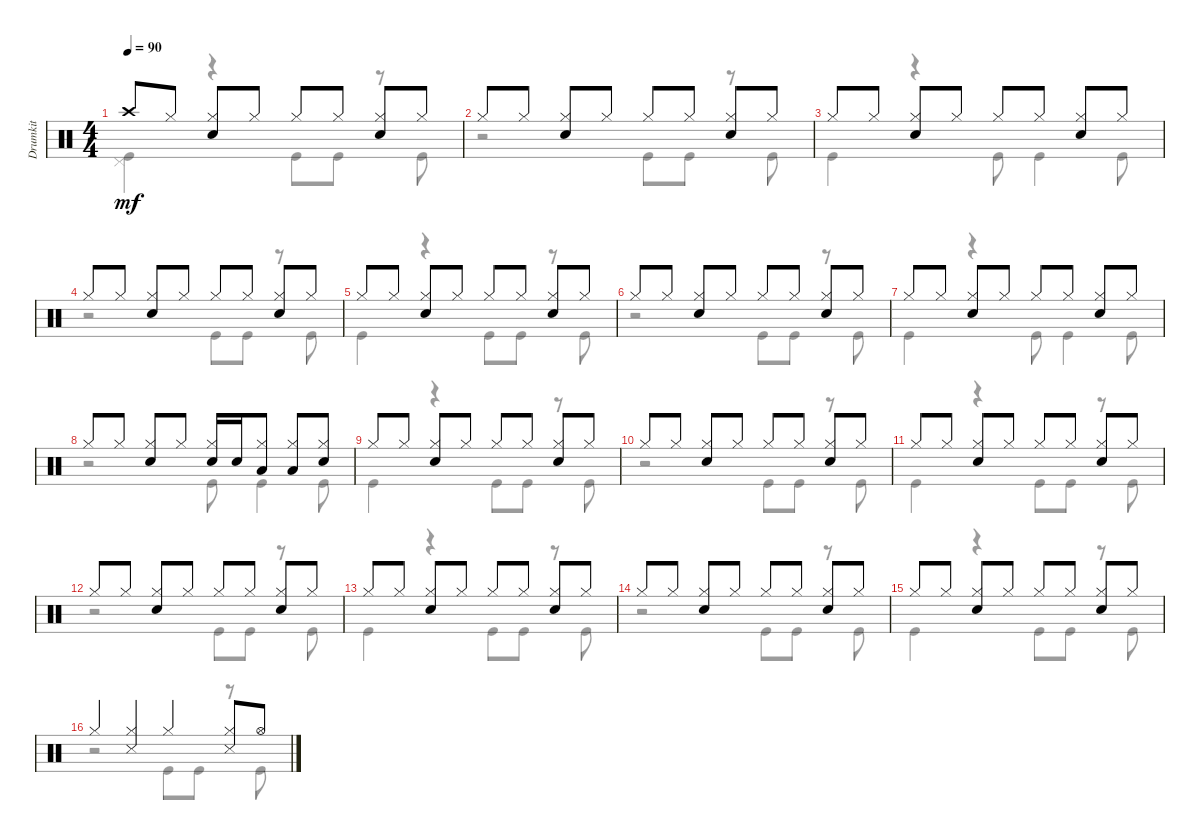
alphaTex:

\track ("Drumkit" "Drumkit") {instrument percussion}
\staff {score}
\articulation defaults
\voice
\ts (4 4)
\tempo 90
\clef neutral
\ks c "Crash high (hit)".8{dy mf} "Hi-Hat (closed)".8
("Snare (hit) 2" "Hi-Hat (closed)").8 "Hi-Hat (closed)".8 "Hi-Hat (closed)".8 "Hi-Hat (closed)".8 ("Snare (hit) 2" "Hi-Hat (closed)").8 "Hi-Hat (closed)".8 |
"Hi-Hat (closed)".8 "Hi-Hat (closed)".8 ("Snare (hit) 2" "Hi-Hat (closed)").8 "Hi-Hat (closed)".8 "Hi-Hat (closed)".8 "Hi-Hat (closed)".8 ("Snare (hit) 2" "Hi-Hat (closed)").8 "Hi-Hat (closed)".8 |
"Hi-Hat (closed)".8 "Hi-Hat (closed)".8 ("Snare (hit) 2" "Hi-Hat (closed)").8 "Hi-Hat (closed)".8 "Hi-Hat (closed)".8 "Hi-Hat (closed)".8 ("Snare (hit) 2" "Hi-Hat (closed)").8 "Hi-Hat (closed)".8 |
"Hi-Hat (closed)".8 "Hi-Hat (closed)".8 ("Snare (hit) 2" "Hi-Hat (closed)").8 "Hi-Hat (closed)".8 "Hi-Hat (closed)".8 "Hi-Hat (closed)".8 ("Snare (hit) 2" "Hi-Hat (closed)").8 "Hi-Hat (closed)".8 |
"Hi-Hat (closed)".8 "Hi-Hat (closed)".8 ("Snare (hit) 2" "Hi-Hat (closed)").8 "Hi-Hat (closed)".8 "Hi-Hat (closed)".8 "Hi-Hat (closed)".8 ("Snare (hit) 2" "Hi-Hat (closed)").8 "Hi-Hat (closed)".8 |
"Hi-Hat (closed)".8 "Hi-Hat (closed)".8 ("Snare (hit) 2" "Hi-Hat (closed)").8 "Hi-Hat (closed)".8 "Hi-Hat (closed)".8 "Hi-Hat (closed)".8 ("Snare (hit) 2" "Hi-Hat (closed)").8 "Hi-Hat (closed)".8 |
"Hi-Hat (closed)".8 "Hi-Hat (closed)".8 ("Snare (hit) 2" "Hi-Hat (closed)").8 "Hi-Hat (closed)".8 "Hi-Hat (closed)".8 "Hi-Hat (closed)".8 ("Snare (hit) 2" "Hi-Hat (closed)").8 "Hi-Hat (closed)".8 |
"Hi-Hat (closed)".8 "Hi-Hat (closed)".8 ("Snare (hit) 2" "Hi-Hat (closed)").8 "Hi-Hat (closed)".8 ("Snare (hit) 2" "Hi-Hat (closed)").16 "Snare (hit) 2".16 ("Low Tom (hit)" "Hi-Hat (closed)").8 ("Low Floor Tom (hit)" "Hi-Hat (closed)").8 ("Snare (hit) 2" "Hi-Hat (closed)").8 |
"Hi-Hat (closed)".8 "Hi-Hat (closed)".8 ("Snare (hit) 2" "Hi-Hat (closed)").8 "Hi-Hat (closed)".8 "Hi-Hat (closed)".8 "Hi-Hat (closed)".8 ("Snare (hit) 2" "Hi-Hat (closed)").8 "Hi-Hat (closed)".8 |
"Hi-Hat (closed)".8 "Hi-Hat (closed)".8 ("Snare (hit) 2" "Hi-Hat (closed)").8 "Hi-Hat (closed)".8 "Hi-Hat (closed)".8 "Hi-Hat (closed)".8 ("Snare (hit) 2" "Hi-Hat (closed)").8 "Hi-Hat (closed)".8 |
"Hi-Hat (closed)".8 "Hi-Hat (closed)".8 ("Snare (hit) 2" "Hi-Hat (closed)").8 "Hi-Hat (closed)".8 "Hi-Hat (closed)".8 "Hi-Hat (closed)".8 ("Snare (hit) 2" "Hi-Hat (closed)").8 "Hi-Hat (closed)".8 |
"Hi-Hat (closed)".8 "Hi-Hat (closed)".8 ("Snare (hit) 2" "Hi-Hat (closed)").8 "Hi-Hat (closed)".8 "Hi-Hat (closed)".8 "Hi-Hat (closed)".8 ("Snare (hit) 2" "Hi-Hat (closed)").8 "Hi-Hat (closed)".8 |
"Hi-Hat (closed)".8 "Hi-Hat (closed)".8 ("Snare (hit) 2" "Hi-Hat (closed)").8 "Hi-Hat (closed)".8 "Hi-Hat (closed)".8 "Hi-Hat (closed)".8 ("Snare (hit) 2" "Hi-Hat (closed)").8 "Hi-Hat (closed)".8 |
"Hi-Hat (closed)".8 "Hi-Hat (closed)".8 ("Snare (hit) 2" "Hi-Hat (closed)").8 "Hi-Hat (closed)".8 "Hi-Hat (closed)".8 "Hi-Hat (closed)".8 ("Snare (hit) 2" "Hi-Hat (closed)").8 "Hi-Hat (closed)".8 |
"Hi-Hat (closed)".8 "Hi-Hat (closed)".8 ("Snare (hit) 2" "Hi-Hat (closed)").8 "Hi-Hat (closed)".8 "Hi-Hat (closed)".8 "Hi-Hat (closed)".8 ("Snare (hit) 2" "Hi-Hat (closed)").8 "Hi-Hat (closed)".8 |
"Hi-Hat (closed)".4 ("Snare (side stick) 3" "Hi-Hat (closed)").4 "Hi-Hat (closed)".4 ("Snare (side stick) 3" "Hi-Hat (closed)").8 "Hi-Hat (open)".8
\voice
\clef neutral
\ottava regular
\simile none
\ks c
("Pedal Hi-Hat (hit)" "Kick (hit)").4{dy mf} r.4 "Kick (hit)".8 "Kick (hit)".8 r.8 "Kick (hit)".8 |
r.2 "Kick (hit)".8 "Kick (hit)".8 r.8 "Kick (hit)".8 |
"Kick (hit)".4 r.4 "Kick (hit)".8 "Kick (hit)".4 "Kick (hit)".8 |
r.2 "Kick (hit)".8 "Kick (hit)".8 r.8 "Kick (hit)".8 |
"Kick (hit)".4 r.4 "Kick (hit)".8 "Kick (hit)".8 r.8 "Kick (hit)".8 |
r.2 "Kick (hit)".8 "Kick (hit)".8 r.8 "Kick (hit)".8 |
"Kick (hit)".4 r.4 "Kick (hit)".8 "Kick (hit)".4 "Kick (hit)".8 |
r.2 "Kick (hit)".8 "Kick (hit)".4 "Kick (hit)".8 |
"Kick (hit)".4 r.4 "Kick (hit)".8 "Kick (hit)".8 r.8 "Kick (hit)".8 |
r.2 "Kick (hit)".8 "Kick (hit)".8 r.8 "Kick (hit)".8 |
"Kick (hit)".4 r.4 "Kick (hit)".8 "Kick (hit)".8 r.8 "Kick (hit)".8 |
r.2 "Kick (hit)".8 "Kick (hit)".8 r.8 "Kick (hit)".8 |
"Kick (hit)".4 r.4 "Kick (hit)".8 "Kick (hit)".8 r.8 "Kick (hit)".8 |
r.2 "Kick (hit)".8 "Kick (hit)".8 r.8 "Kick (hit)".8 |
"Kick (hit)".4 r.4 "Kick (hit)".8 "Kick (hit)".8 r.8 "Kick (hit)".8 |
r.2 "Kick (hit)".8 "Kick (hit)".8 r.8 "Kick (hit)".8
